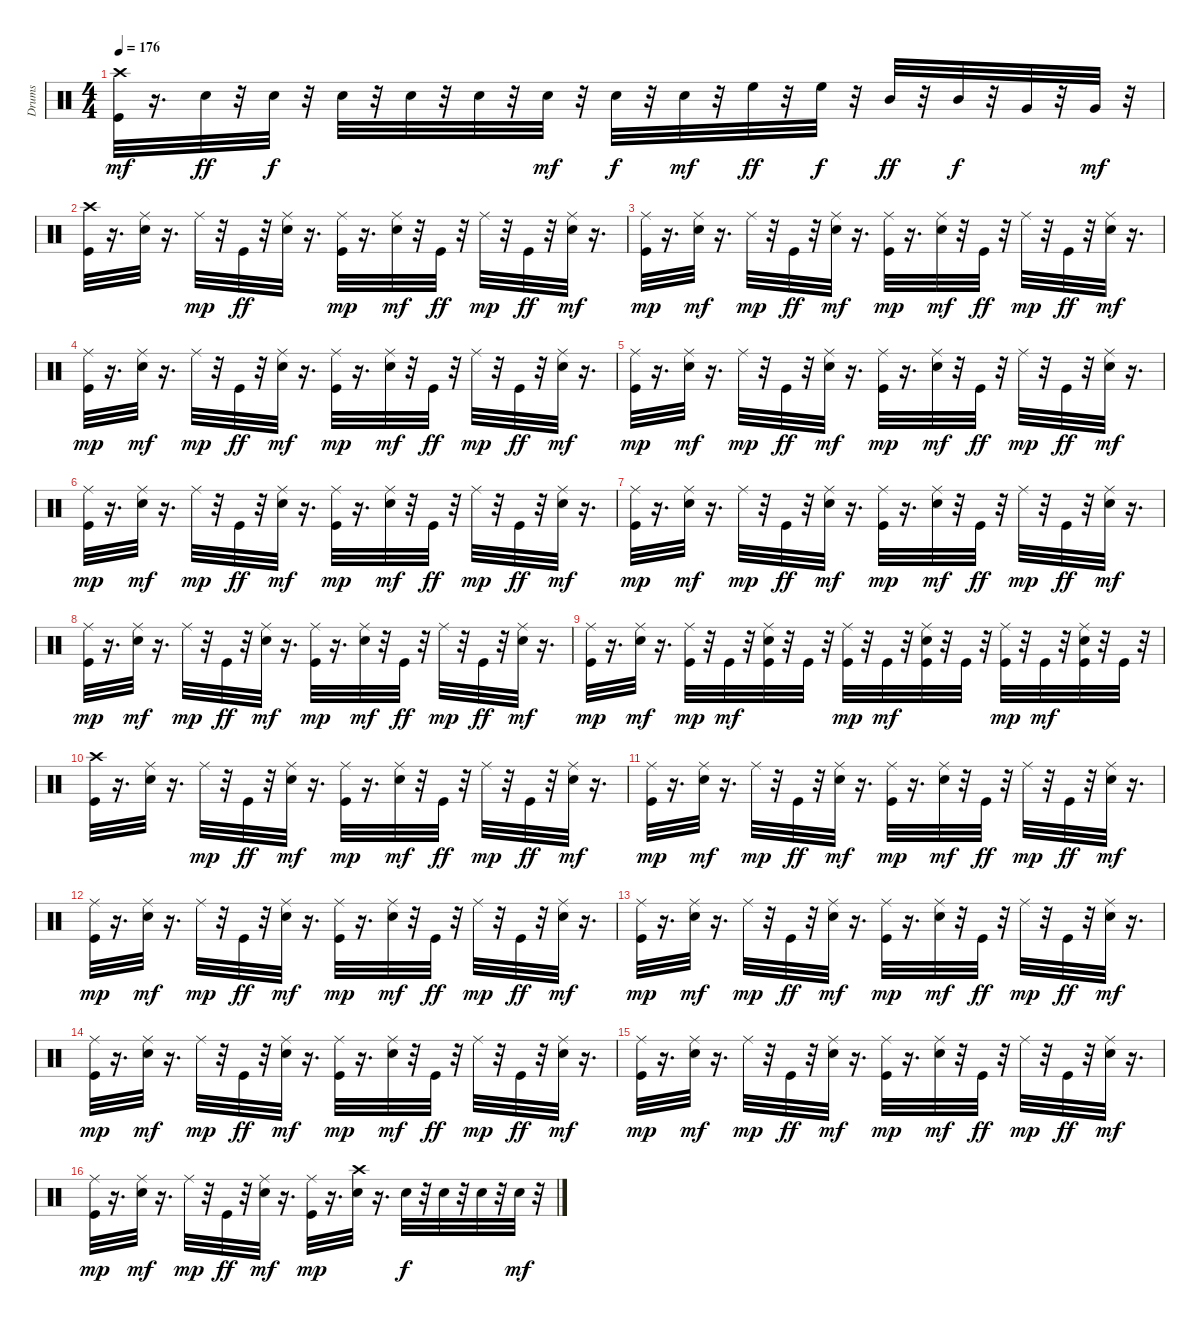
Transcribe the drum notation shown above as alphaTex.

\track ("Drums" "Drums") {instrument percussion}
\staff {score}
\articulation defaults
\ts (4 4)
\tempo 176
\clef neutral
\ks c
("Kick (hit)" "Crash high (hit)").32{dy mf} r.16{d} "Snare (hit) 2".32{dy ff} r.32 "Snare (hit) 2".32{dy f} r.32 "Snare (hit) 2".32 r.32 "Snare (hit) 2".32 r.32 "Snare (hit) 2".32 r.32 "Snare (hit) 2".32{dy mf} r.32 "Snare (hit) 2".32{dy f} r.32 "Snare (hit) 2".32{dy mf} r.32 "High Floor Tom (hit)".32{dy ff} r.32 "High Floor Tom (hit)".32{dy f} r.32 "Mid Tom (hit)".32{dy ff} r.32 "Mid Tom (hit)".32{dy f} r.32 "Very Low Tom (hit)".32 r.32 "Very Low Tom (hit)".32{dy mf} r.32 |
("Kick (hit)" "Crash high (hit)").32 r.16{d} ("Snare (hit) 2" "Ride (middle)").32 r.16{d} "Ride (middle)".32{dy mp} r.32 "Kick (hit)".32{dy ff} r.32 ("Snare (hit) 2" "Ride (middle)").32 r.16{d} ("Kick (hit)" "Ride (middle)").32{dy mp} r.16{d} ("Snare (hit) 2" "Ride (middle)").32{dy mf} r.32 "Kick (hit)".32{dy ff} r.32 "Ride (middle)".32{dy mp} r.32 "Kick (hit)".32{dy ff} r.32 ("Snare (hit) 2" "Ride (middle)").32{dy mf} r.16{d} |
("Kick (hit)" "Ride (middle)").32{dy mp} r.16{d} ("Snare (hit) 2" "Ride (middle)").32{dy mf} r.16{d} "Ride (middle)".32{dy mp} r.32 "Kick (hit)".32{dy ff} r.32 ("Snare (hit) 2" "Ride (middle)").32{dy mf} r.16{d} ("Kick (hit)" "Ride (middle)").32{dy mp} r.16{d} ("Snare (hit) 2" "Ride (middle)").32{dy mf} r.32 "Kick (hit)".32{dy ff} r.32 "Ride (middle)".32{dy mp} r.32 "Kick (hit)".32{dy ff} r.32 ("Snare (hit) 2" "Ride (middle)").32{dy mf} r.16{d} |
("Kick (hit)" "Ride (middle)").32{dy mp} r.16{d} ("Snare (hit) 2" "Ride (middle)").32{dy mf} r.16{d} "Ride (middle)".32{dy mp} r.32 "Kick (hit)".32{dy ff} r.32 ("Snare (hit) 2" "Ride (middle)").32{dy mf} r.16{d} ("Kick (hit)" "Ride (middle)").32{dy mp} r.16{d} ("Snare (hit) 2" "Ride (middle)").32{dy mf} r.32 "Kick (hit)".32{dy ff} r.32 "Ride (middle)".32{dy mp} r.32 "Kick (hit)".32{dy ff} r.32 ("Snare (hit) 2" "Ride (middle)").32{dy mf} r.16{d} |
("Kick (hit)" "Ride (middle)").32{dy mp} r.16{d} ("Snare (hit) 2" "Ride (middle)").32{dy mf} r.16{d} "Ride (middle)".32{dy mp} r.32 "Kick (hit)".32{dy ff} r.32 ("Snare (hit) 2" "Ride (middle)").32{dy mf} r.16{d} ("Kick (hit)" "Ride (middle)").32{dy mp} r.16{d} ("Snare (hit) 2" "Ride (middle)").32{dy mf} r.32 "Kick (hit)".32{dy ff} r.32 "Ride (middle)".32{dy mp} r.32 "Kick (hit)".32{dy ff} r.32 ("Snare (hit) 2" "Ride (middle)").32{dy mf} r.16{d} |
("Kick (hit)" "Ride (middle)").32{dy mp} r.16{d} ("Snare (hit) 2" "Ride (middle)").32{dy mf} r.16{d} "Ride (middle)".32{dy mp} r.32 "Kick (hit)".32{dy ff} r.32 ("Snare (hit) 2" "Ride (middle)").32{dy mf} r.16{d} ("Kick (hit)" "Ride (middle)").32{dy mp} r.16{d} ("Snare (hit) 2" "Ride (middle)").32{dy mf} r.32 "Kick (hit)".32{dy ff} r.32 "Ride (middle)".32{dy mp} r.32 "Kick (hit)".32{dy ff} r.32 ("Snare (hit) 2" "Ride (middle)").32{dy mf} r.16{d} |
("Kick (hit)" "Ride (middle)").32{dy mp} r.16{d} ("Snare (hit) 2" "Ride (middle)").32{dy mf} r.16{d} "Ride (middle)".32{dy mp} r.32 "Kick (hit)".32{dy ff} r.32 ("Snare (hit) 2" "Ride (middle)").32{dy mf} r.16{d} ("Kick (hit)" "Ride (middle)").32{dy mp} r.16{d} ("Snare (hit) 2" "Ride (middle)").32{dy mf} r.32 "Kick (hit)".32{dy ff} r.32 "Ride (middle)".32{dy mp} r.32 "Kick (hit)".32{dy ff} r.32 ("Snare (hit) 2" "Ride (middle)").32{dy mf} r.16{d} |
("Kick (hit)" "Ride (middle)").32{dy mp} r.16{d} ("Snare (hit) 2" "Ride (middle)").32{dy mf} r.16{d} "Ride (middle)".32{dy mp} r.32 "Kick (hit)".32{dy ff} r.32 ("Snare (hit) 2" "Ride (middle)").32{dy mf} r.16{d} ("Kick (hit)" "Ride (middle)").32{dy mp} r.16{d} ("Snare (hit) 2" "Ride (middle)").32{dy mf} r.32 "Kick (hit)".32{dy ff} r.32 "Ride (middle)".32{dy mp} r.32 "Kick (hit)".32{dy ff} r.32 ("Snare (hit) 2" "Ride (middle)").32{dy mf} r.16{d} |
("Kick (hit)" "Ride (middle)").32{dy mp} r.16{d} ("Snare (hit) 2" "Ride (middle)").32{dy mf} r.16{d} ("Kick (hit)" "Ride (middle)").32{dy mp} r.32 "Kick (hit)".32{dy mf} r.32 ("Kick (hit)" "Snare (hit) 2" "Ride (middle)").32 r.32 "Kick (hit)".32 r.32 ("Kick (hit)" "Ride (middle)").32{dy mp} r.32 "Kick (hit)".32{dy mf} r.32 ("Kick (hit)" "Snare (hit) 2" "Ride (middle)").32 r.32 "Kick (hit)".32 r.32 ("Kick (hit)" "Ride (middle)").32{dy mp} r.32 "Kick (hit)".32{dy mf} r.32 ("Kick (hit)" "Snare (hit) 2" "Ride (middle)").32 r.32 "Kick (hit)".32 r.32 |
("Kick (hit)" "Crash high (hit)").32 r.16{d} ("Snare (hit) 2" "Ride (middle)").32 r.16{d} "Ride (middle)".32{dy mp} r.32 "Kick (hit)".32{dy ff} r.32 ("Snare (hit) 2" "Ride (middle)").32{dy mf} r.16{d} ("Kick (hit)" "Ride (middle)").32{dy mp} r.16{d} ("Snare (hit) 2" "Ride (middle)").32{dy mf} r.32 "Kick (hit)".32{dy ff} r.32 "Ride (middle)".32{dy mp} r.32 "Kick (hit)".32{dy ff} r.32 ("Snare (hit) 2" "Ride (middle)").32{dy mf} r.16{d} |
("Kick (hit)" "Ride (middle)").32{dy mp} r.16{d} ("Snare (hit) 2" "Ride (middle)").32{dy mf} r.16{d} "Ride (middle)".32{dy mp} r.32 "Kick (hit)".32{dy ff} r.32 ("Snare (hit) 2" "Ride (middle)").32{dy mf} r.16{d} ("Kick (hit)" "Ride (middle)").32{dy mp} r.16{d} ("Snare (hit) 2" "Ride (middle)").32{dy mf} r.32 "Kick (hit)".32{dy ff} r.32 "Ride (middle)".32{dy mp} r.32 "Kick (hit)".32{dy ff} r.32 ("Snare (hit) 2" "Ride (middle)").32{dy mf} r.16{d} |
("Kick (hit)" "Ride (middle)").32{dy mp} r.16{d} ("Snare (hit) 2" "Ride (middle)").32{dy mf} r.16{d} "Ride (middle)".32{dy mp} r.32 "Kick (hit)".32{dy ff} r.32 ("Snare (hit) 2" "Ride (middle)").32{dy mf} r.16{d} ("Kick (hit)" "Ride (middle)").32{dy mp} r.16{d} ("Snare (hit) 2" "Ride (middle)").32{dy mf} r.32 "Kick (hit)".32{dy ff} r.32 "Ride (middle)".32{dy mp} r.32 "Kick (hit)".32{dy ff} r.32 ("Snare (hit) 2" "Ride (middle)").32{dy mf} r.16{d} |
("Kick (hit)" "Ride (middle)").32{dy mp} r.16{d} ("Snare (hit) 2" "Ride (middle)").32{dy mf} r.16{d} "Ride (middle)".32{dy mp} r.32 "Kick (hit)".32{dy ff} r.32 ("Snare (hit) 2" "Ride (middle)").32{dy mf} r.16{d} ("Kick (hit)" "Ride (middle)").32{dy mp} r.16{d} ("Snare (hit) 2" "Ride (middle)").32{dy mf} r.32 "Kick (hit)".32{dy ff} r.32 "Ride (middle)".32{dy mp} r.32 "Kick (hit)".32{dy ff} r.32 ("Snare (hit) 2" "Ride (middle)").32{dy mf} r.16{d} |
("Kick (hit)" "Ride (middle)").32{dy mp} r.16{d} ("Snare (hit) 2" "Ride (middle)").32{dy mf} r.16{d} "Ride (middle)".32{dy mp} r.32 "Kick (hit)".32{dy ff} r.32 ("Snare (hit) 2" "Ride (middle)").32{dy mf} r.16{d} ("Kick (hit)" "Ride (middle)").32{dy mp} r.16{d} ("Snare (hit) 2" "Ride (middle)").32{dy mf} r.32 "Kick (hit)".32{dy ff} r.32 "Ride (middle)".32{dy mp} r.32 "Kick (hit)".32{dy ff} r.32 ("Snare (hit) 2" "Ride (middle)").32{dy mf} r.16{d} |
("Kick (hit)" "Ride (middle)").32{dy mp} r.16{d} ("Snare (hit) 2" "Ride (middle)").32{dy mf} r.16{d} "Ride (middle)".32{dy mp} r.32 "Kick (hit)".32{dy ff} r.32 ("Snare (hit) 2" "Ride (middle)").32{dy mf} r.16{d} ("Kick (hit)" "Ride (middle)").32{dy mp} r.16{d} ("Snare (hit) 2" "Ride (middle)").32{dy mf} r.32 "Kick (hit)".32{dy ff} r.32 "Ride (middle)".32{dy mp} r.32 "Kick (hit)".32{dy ff} r.32 ("Snare (hit) 2" "Ride (middle)").32{dy mf} r.16{d} |
("Kick (hit)" "Ride (middle)").32{dy mp} r.16{d} ("Snare (hit) 2" "Ride (middle)").32{dy mf} r.16{d} "Ride (middle)".32{dy mp} r.32 "Kick (hit)".32{dy ff} r.32 ("Snare (hit) 2" "Ride (middle)").32{dy mf} r.16{d} ("Kick (hit)" "Ride (middle)").32{dy mp} r.16{d} ("Snare (hit) 2" "Crash high (hit)").32 r.16{d} "Snare (hit) 2".32{dy f} r.32 "Snare (hit) 2".32 r.32 "Snare (hit) 2".32 r.32 "Snare (hit) 2".32{dy mf} r.32
